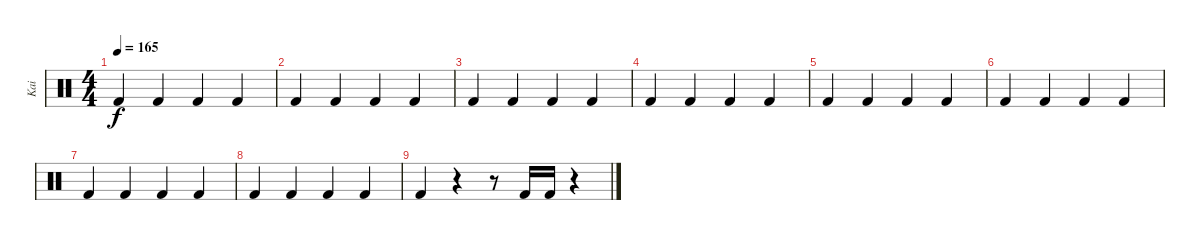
\track ("Kai" "Kai") {instrument percussion}
\staff {score}
\articulation defaults
\ts (4 4)
\tempo 165
\clef neutral
\ks c "Kick (hit) 2".4{dy f} "Kick (hit) 2".4 "Kick (hit) 2".4 "Kick (hit) 2".4
|
"Kick (hit) 2".4 "Kick (hit) 2".4 "Kick (hit) 2".4 "Kick (hit) 2".4 |
"Kick (hit) 2".4 "Kick (hit) 2".4 "Kick (hit) 2".4 "Kick (hit) 2".4 |
"Kick (hit) 2".4 "Kick (hit) 2".4 "Kick (hit) 2".4 "Kick (hit) 2".4 |
"Kick (hit) 2".4 "Kick (hit) 2".4 "Kick (hit) 2".4 "Kick (hit) 2".4 |
"Kick (hit) 2".4 "Kick (hit) 2".4 "Kick (hit) 2".4 "Kick (hit) 2".4 |
"Kick (hit) 2".4 "Kick (hit) 2".4 "Kick (hit) 2".4 "Kick (hit) 2".4 |
"Kick (hit) 2".4 "Kick (hit) 2".4 "Kick (hit) 2".4 "Kick (hit) 2".4 |
"Kick (hit) 2".4 r.4 r.8 "Kick (hit) 2".16 "Kick (hit) 2".16 r.4
